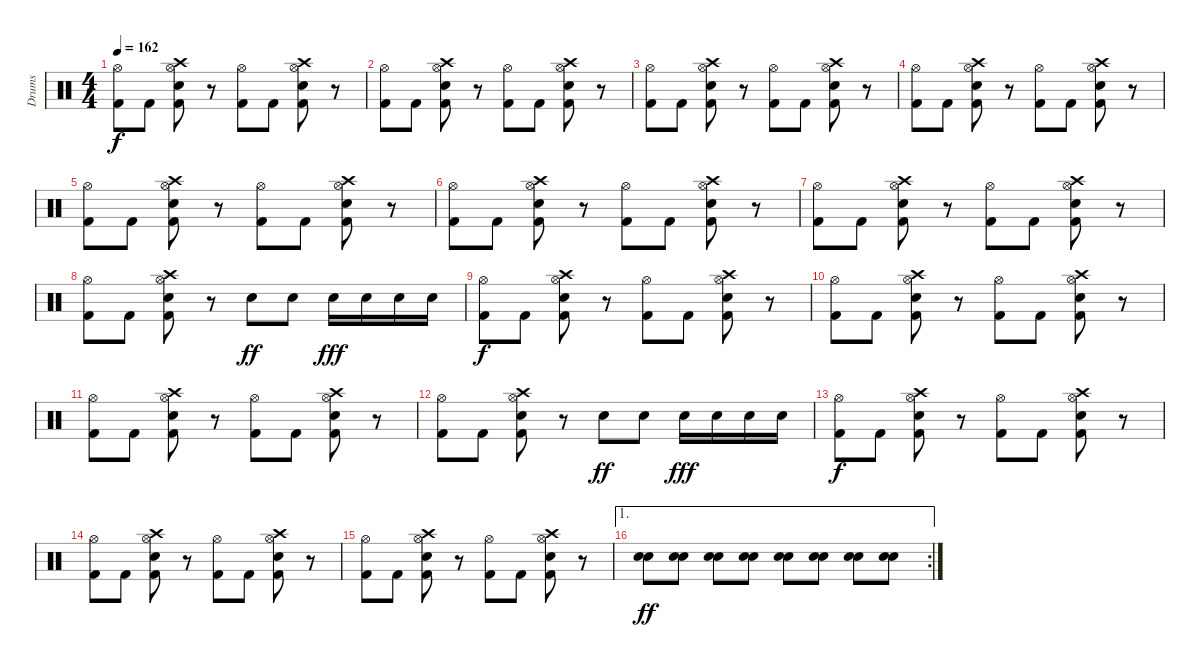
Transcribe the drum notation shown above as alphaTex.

\track ("Drums" "Drums") {instrument percussion}
\staff {score}
\articulation defaults
\ts (4 4)
\tempo 162
\clef neutral
\ks c
("Hi-Hat (open)" "Kick (hit) 2").8{dy f} "Kick (hit) 2".8 ("Hi-Hat (open)" "Crash high (hit)" "Snare (hit) 2" "Kick (hit) 2").8 r.8 ("Hi-Hat (open)" "Kick (hit) 2").8 "Kick (hit) 2".8 ("Hi-Hat (open)" "Crash high (hit)" "Snare (hit) 2" "Kick (hit) 2").8 r.8 |
("Hi-Hat (open)" "Kick (hit) 2").8 "Kick (hit) 2".8 ("Hi-Hat (open)" "Crash high (hit)" "Snare (hit) 2" "Kick (hit) 2").8 r.8 ("Hi-Hat (open)" "Kick (hit) 2").8 "Kick (hit) 2".8 ("Hi-Hat (open)" "Crash high (hit)" "Snare (hit) 2" "Kick (hit) 2").8 r.8 |
("Hi-Hat (open)" "Kick (hit) 2").8 "Kick (hit) 2".8 ("Hi-Hat (open)" "Crash high (hit)" "Snare (hit) 2" "Kick (hit) 2").8 r.8 ("Hi-Hat (open)" "Kick (hit) 2").8 "Kick (hit) 2".8 ("Hi-Hat (open)" "Crash high (hit)" "Snare (hit) 2" "Kick (hit) 2").8 r.8 |
("Hi-Hat (open)" "Kick (hit) 2").8 "Kick (hit) 2".8 ("Hi-Hat (open)" "Crash high (hit)" "Snare (hit) 2" "Kick (hit) 2").8 r.8 ("Hi-Hat (open)" "Kick (hit) 2").8 "Kick (hit) 2".8 ("Hi-Hat (open)" "Crash high (hit)" "Snare (hit) 2" "Kick (hit) 2").8 r.8 |
("Hi-Hat (open)" "Kick (hit) 2").8 "Kick (hit) 2".8 ("Hi-Hat (open)" "Crash high (hit)" "Snare (hit) 2" "Kick (hit) 2").8 r.8 ("Hi-Hat (open)" "Kick (hit) 2").8 "Kick (hit) 2".8 ("Hi-Hat (open)" "Crash high (hit)" "Snare (hit) 2" "Kick (hit) 2").8 r.8 |
("Hi-Hat (open)" "Kick (hit) 2").8 "Kick (hit) 2".8 ("Hi-Hat (open)" "Crash high (hit)" "Snare (hit) 2" "Kick (hit) 2").8 r.8 ("Hi-Hat (open)" "Kick (hit) 2").8 "Kick (hit) 2".8 ("Hi-Hat (open)" "Crash high (hit)" "Snare (hit) 2" "Kick (hit) 2").8 r.8 |
("Hi-Hat (open)" "Kick (hit) 2").8 "Kick (hit) 2".8 ("Hi-Hat (open)" "Crash high (hit)" "Snare (hit) 2" "Kick (hit) 2").8 r.8 ("Hi-Hat (open)" "Kick (hit) 2").8 "Kick (hit) 2".8 ("Hi-Hat (open)" "Crash high (hit)" "Snare (hit) 2" "Kick (hit) 2").8 r.8 |
("Hi-Hat (open)" "Kick (hit) 2").8 "Kick (hit) 2".8 ("Hi-Hat (open)" "Crash high (hit)" "Snare (hit) 2" "Kick (hit) 2").8 r.8 "Snare (hit) 2".8{dy ff} "Snare (hit) 2".8 "Snare (hit) 2".16{dy fff} "Snare (hit) 2".16 "Snare (hit) 2".16 "Snare (hit) 2".16 |
("Hi-Hat (open)" "Kick (hit) 2").8{dy f} "Kick (hit) 2".8 ("Hi-Hat (open)" "Crash high (hit)" "Snare (hit) 2" "Kick (hit) 2").8 r.8 ("Hi-Hat (open)" "Kick (hit) 2").8 "Kick (hit) 2".8 ("Hi-Hat (open)" "Crash high (hit)" "Snare (hit) 2" "Kick (hit) 2").8 r.8 |
("Hi-Hat (open)" "Kick (hit) 2").8 "Kick (hit) 2".8 ("Hi-Hat (open)" "Crash high (hit)" "Snare (hit) 2" "Kick (hit) 2").8 r.8 ("Hi-Hat (open)" "Kick (hit) 2").8 "Kick (hit) 2".8 ("Hi-Hat (open)" "Crash high (hit)" "Snare (hit) 2" "Kick (hit) 2").8 r.8 |
("Hi-Hat (open)" "Kick (hit) 2").8 "Kick (hit) 2".8 ("Hi-Hat (open)" "Crash high (hit)" "Snare (hit) 2" "Kick (hit) 2").8 r.8 ("Hi-Hat (open)" "Kick (hit) 2").8 "Kick (hit) 2".8 ("Hi-Hat (open)" "Crash high (hit)" "Snare (hit) 2" "Kick (hit) 2").8 r.8 |
("Hi-Hat (open)" "Kick (hit) 2").8 "Kick (hit) 2".8 ("Hi-Hat (open)" "Crash high (hit)" "Snare (hit) 2" "Kick (hit) 2").8 r.8 "Snare (hit) 2".8{dy ff} "Snare (hit) 2".8 "Snare (hit) 2".16{dy fff} "Snare (hit) 2".16 "Snare (hit) 2".16 "Snare (hit) 2".16 |
("Hi-Hat (open)" "Kick (hit) 2").8{dy f} "Kick (hit) 2".8 ("Hi-Hat (open)" "Crash high (hit)" "Snare (hit) 2" "Kick (hit) 2").8 r.8 ("Hi-Hat (open)" "Kick (hit) 2").8 "Kick (hit) 2".8 ("Hi-Hat (open)" "Crash high (hit)" "Snare (hit) 2" "Kick (hit) 2").8 r.8 |
("Hi-Hat (open)" "Kick (hit) 2").8 "Kick (hit) 2".8 ("Hi-Hat (open)" "Crash high (hit)" "Snare (hit) 2" "Kick (hit) 2").8 r.8 ("Hi-Hat (open)" "Kick (hit) 2").8 "Kick (hit) 2".8 ("Hi-Hat (open)" "Crash high (hit)" "Snare (hit) 2" "Kick (hit) 2").8 r.8 |
("Hi-Hat (open)" "Kick (hit) 2").8 "Kick (hit) 2".8 ("Hi-Hat (open)" "Crash high (hit)" "Snare (hit) 2" "Kick (hit) 2").8 r.8 ("Hi-Hat (open)" "Kick (hit) 2").8 "Kick (hit) 2".8 ("Hi-Hat (open)" "Crash high (hit)" "Snare (hit) 2" "Kick (hit) 2").8 r.8 |
\ae 1
\rc 2
("Snare (hit) 2" "Electric Snare (hit)").8{dy ff} ("Snare (hit) 2" "Electric Snare (hit)").8 ("Snare (hit) 2" "Electric Snare (hit)").8 ("Snare (hit) 2" "Electric Snare (hit)").8 ("Snare (hit) 2" "Electric Snare (hit)").8 ("Snare (hit) 2" "Electric Snare (hit)").8 ("Snare (hit) 2" "Electric Snare (hit)").8 ("Snare (hit) 2" "Electric Snare (hit)").8
